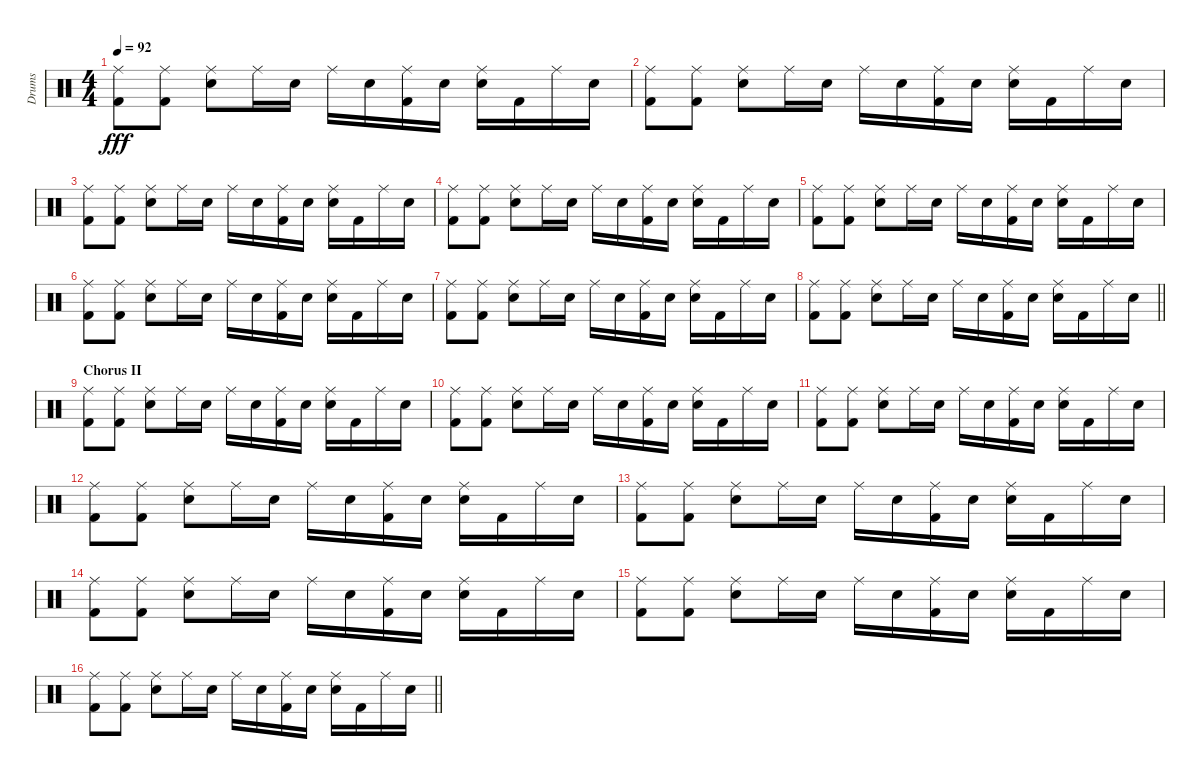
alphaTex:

\track ("Drums" "Drums") {instrument percussion}
\staff {score}
\articulation defaults
\ts (4 4)
\tempo 92
\clef neutral
\ks c
("Ride (middle)" "Kick (hit) 2").8{dy fff} ("Ride (middle)" "Kick (hit) 2").8 ("Ride (middle)" "Snare (hit) 2").8 "Ride (middle)".16 "Snare (hit) 2".16 "Ride (middle)".16 "Snare (hit) 2".16 ("Ride (middle)" "Kick (hit) 2").16 "Snare (hit) 2".16 ("Ride (middle)" "Snare (hit) 2").16 "Kick (hit) 2".16 "Ride (middle)".16 "Snare (hit) 2".16 |
("Ride (middle)" "Kick (hit) 2").8 ("Ride (middle)" "Kick (hit) 2").8 ("Ride (middle)" "Snare (hit) 2").8 "Ride (middle)".16 "Snare (hit) 2".16 "Ride (middle)".16 "Snare (hit) 2".16 ("Ride (middle)" "Kick (hit) 2").16 "Snare (hit) 2".16 ("Ride (middle)" "Snare (hit) 2").16 "Kick (hit) 2".16 "Ride (middle)".16 "Snare (hit) 2".16 |
("Ride (middle)" "Kick (hit) 2").8 ("Ride (middle)" "Kick (hit) 2").8 ("Ride (middle)" "Snare (hit) 2").8 "Ride (middle)".16 "Snare (hit) 2".16 "Ride (middle)".16 "Snare (hit) 2".16 ("Ride (middle)" "Kick (hit) 2").16 "Snare (hit) 2".16 ("Ride (middle)" "Snare (hit) 2").16 "Kick (hit) 2".16 "Ride (middle)".16 "Snare (hit) 2".16 |
("Ride (middle)" "Kick (hit) 2").8 ("Ride (middle)" "Kick (hit) 2").8 ("Ride (middle)" "Snare (hit) 2").8 "Ride (middle)".16 "Snare (hit) 2".16 "Ride (middle)".16 "Snare (hit) 2".16 ("Ride (middle)" "Kick (hit) 2").16 "Snare (hit) 2".16 ("Ride (middle)" "Snare (hit) 2").16 "Kick (hit) 2".16 "Ride (middle)".16 "Snare (hit) 2".16 |
("Ride (middle)" "Kick (hit) 2").8 ("Ride (middle)" "Kick (hit) 2").8 ("Ride (middle)" "Snare (hit) 2").8 "Ride (middle)".16 "Snare (hit) 2".16 "Ride (middle)".16 "Snare (hit) 2".16 ("Ride (middle)" "Kick (hit) 2").16 "Snare (hit) 2".16 ("Ride (middle)" "Snare (hit) 2").16 "Kick (hit) 2".16 "Ride (middle)".16 "Snare (hit) 2".16 |
("Ride (middle)" "Kick (hit) 2").8 ("Ride (middle)" "Kick (hit) 2").8 ("Ride (middle)" "Snare (hit) 2").8 "Ride (middle)".16 "Snare (hit) 2".16 "Ride (middle)".16 "Snare (hit) 2".16 ("Ride (middle)" "Kick (hit) 2").16 "Snare (hit) 2".16 ("Ride (middle)" "Snare (hit) 2").16 "Kick (hit) 2".16 "Ride (middle)".16 "Snare (hit) 2".16 |
("Ride (middle)" "Kick (hit) 2").8 ("Ride (middle)" "Kick (hit) 2").8 ("Ride (middle)" "Snare (hit) 2").8 "Ride (middle)".16 "Snare (hit) 2".16 "Ride (middle)".16 "Snare (hit) 2".16 ("Ride (middle)" "Kick (hit) 2").16 "Snare (hit) 2".16 ("Ride (middle)" "Snare (hit) 2").16 "Kick (hit) 2".16 "Ride (middle)".16 "Snare (hit) 2".16 |
\barLineRight lightlight
("Ride (middle)" "Kick (hit) 2").8 ("Ride (middle)" "Kick (hit) 2").8 ("Ride (middle)" "Snare (hit) 2").8 "Ride (middle)".16 "Snare (hit) 2".16 "Ride (middle)".16 "Snare (hit) 2".16 ("Ride (middle)" "Kick (hit) 2").16 "Snare (hit) 2".16 ("Ride (middle)" "Snare (hit) 2").16 "Kick (hit) 2".16 "Ride (middle)".16 "Snare (hit) 2".16 |
\section ("" "Chorus II")
("Ride (middle)" "Kick (hit) 2").8 ("Ride (middle)" "Kick (hit) 2").8 ("Ride (middle)" "Snare (hit) 2").8 "Ride (middle)".16 "Snare (hit) 2".16 "Ride (middle)".16 "Snare (hit) 2".16 ("Ride (middle)" "Kick (hit) 2").16 "Snare (hit) 2".16 ("Ride (middle)" "Snare (hit) 2").16 "Kick (hit) 2".16 "Ride (middle)".16 "Snare (hit) 2".16 |
("Ride (middle)" "Kick (hit) 2").8 ("Ride (middle)" "Kick (hit) 2").8 ("Ride (middle)" "Snare (hit) 2").8 "Ride (middle)".16 "Snare (hit) 2".16 "Ride (middle)".16 "Snare (hit) 2".16 ("Ride (middle)" "Kick (hit) 2").16 "Snare (hit) 2".16 ("Ride (middle)" "Snare (hit) 2").16 "Kick (hit) 2".16 "Ride (middle)".16 "Snare (hit) 2".16 |
("Ride (middle)" "Kick (hit) 2").8 ("Ride (middle)" "Kick (hit) 2").8 ("Ride (middle)" "Snare (hit) 2").8 "Ride (middle)".16 "Snare (hit) 2".16 "Ride (middle)".16 "Snare (hit) 2".16 ("Ride (middle)" "Kick (hit) 2").16 "Snare (hit) 2".16 ("Ride (middle)" "Snare (hit) 2").16 "Kick (hit) 2".16 "Ride (middle)".16 "Snare (hit) 2".16 |
("Ride (middle)" "Kick (hit) 2").8 ("Ride (middle)" "Kick (hit) 2").8 ("Ride (middle)" "Snare (hit) 2").8 "Ride (middle)".16 "Snare (hit) 2".16 "Ride (middle)".16 "Snare (hit) 2".16 ("Ride (middle)" "Kick (hit) 2").16 "Snare (hit) 2".16 ("Ride (middle)" "Snare (hit) 2").16 "Kick (hit) 2".16 "Ride (middle)".16 "Snare (hit) 2".16 |
("Ride (middle)" "Kick (hit) 2").8 ("Ride (middle)" "Kick (hit) 2").8 ("Ride (middle)" "Snare (hit) 2").8 "Ride (middle)".16 "Snare (hit) 2".16 "Ride (middle)".16 "Snare (hit) 2".16 ("Ride (middle)" "Kick (hit) 2").16 "Snare (hit) 2".16 ("Ride (middle)" "Snare (hit) 2").16 "Kick (hit) 2".16 "Ride (middle)".16 "Snare (hit) 2".16 |
("Ride (middle)" "Kick (hit) 2").8 ("Ride (middle)" "Kick (hit) 2").8 ("Ride (middle)" "Snare (hit) 2").8 "Ride (middle)".16 "Snare (hit) 2".16 "Ride (middle)".16 "Snare (hit) 2".16 ("Ride (middle)" "Kick (hit) 2").16 "Snare (hit) 2".16 ("Ride (middle)" "Snare (hit) 2").16 "Kick (hit) 2".16 "Ride (middle)".16 "Snare (hit) 2".16 |
("Ride (middle)" "Kick (hit) 2").8 ("Ride (middle)" "Kick (hit) 2").8 ("Ride (middle)" "Snare (hit) 2").8 "Ride (middle)".16 "Snare (hit) 2".16 "Ride (middle)".16 "Snare (hit) 2".16 ("Ride (middle)" "Kick (hit) 2").16 "Snare (hit) 2".16 ("Ride (middle)" "Snare (hit) 2").16 "Kick (hit) 2".16 "Ride (middle)".16 "Snare (hit) 2".16 |
\barLineRight lightlight
("Ride (middle)" "Kick (hit) 2").8 ("Ride (middle)" "Kick (hit) 2").8 ("Ride (middle)" "Snare (hit) 2").8 "Ride (middle)".16 "Snare (hit) 2".16 "Ride (middle)".16 "Snare (hit) 2".16 ("Ride (middle)" "Kick (hit) 2").16 "Snare (hit) 2".16 ("Ride (middle)" "Snare (hit) 2").16 "Kick (hit) 2".16 "Ride (middle)".16 "Snare (hit) 2".16
